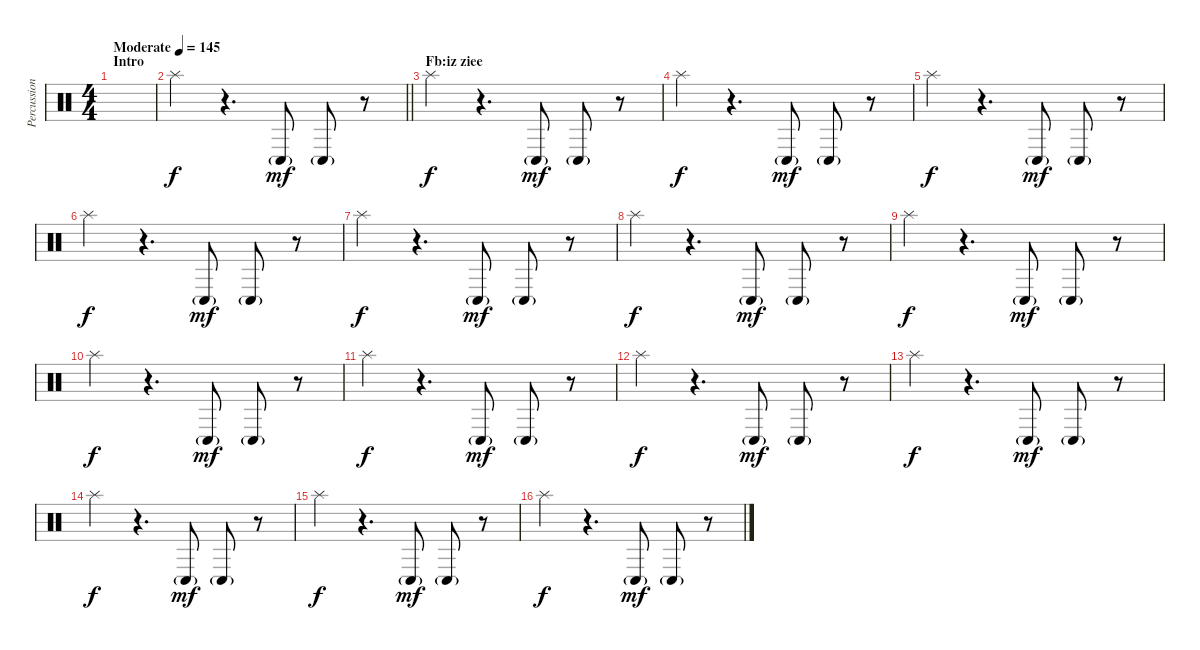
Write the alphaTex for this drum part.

\track ("Percussion 2" "Percussion") {instrument percussion}
\staff {score}
\articulation defaults
\ts (4 4)
\section ("" "Intro")
\tempo (145 "Moderate")
\clef neutral
\ks c
|
\barLineRight lightlight "Splash (hit)".4
r.4{d} "Conga low (hit)"{g}.8{dy mf} "Conga low (hit)"{g}.8 r.8 |
\section ("" "Fb:iz ziee")
"Splash (hit)".4{dy f} r.4{d} "Conga low (hit)"{g}.8{dy mf} "Conga low (hit)"{g}.8 r.8 |
"Splash (hit)".4{dy f} r.4{d} "Conga low (hit)"{g}.8{dy mf} "Conga low (hit)"{g}.8 r.8 |
"Splash (hit)".4{dy f} r.4{d} "Conga low (hit)"{g}.8{dy mf} "Conga low (hit)"{g}.8 r.8 |
"Splash (hit)".4{dy f} r.4{d} "Conga low (hit)"{g}.8{dy mf} "Conga low (hit)"{g}.8 r.8 |
"Splash (hit)".4{dy f} r.4{d} "Conga low (hit)"{g}.8{dy mf} "Conga low (hit)"{g}.8 r.8 |
"Splash (hit)".4{dy f} r.4{d} "Conga low (hit)"{g}.8{dy mf} "Conga low (hit)"{g}.8 r.8 |
"Splash (hit)".4{dy f} r.4{d} "Conga low (hit)"{g}.8{dy mf} "Conga low (hit)"{g}.8 r.8 |
"Splash (hit)".4{dy f} r.4{d} "Conga low (hit)"{g}.8{dy mf} "Conga low (hit)"{g}.8 r.8 |
"Splash (hit)".4{dy f} r.4{d} "Conga low (hit)"{g}.8{dy mf} "Conga low (hit)"{g}.8 r.8 |
"Splash (hit)".4{dy f} r.4{d} "Conga low (hit)"{g}.8{dy mf} "Conga low (hit)"{g}.8 r.8 |
"Splash (hit)".4{dy f} r.4{d} "Conga low (hit)"{g}.8{dy mf} "Conga low (hit)"{g}.8 r.8 |
"Splash (hit)".4{dy f} r.4{d} "Conga low (hit)"{g}.8{dy mf} "Conga low (hit)"{g}.8 r.8 |
"Splash (hit)".4{dy f} r.4{d} "Conga low (hit)"{g}.8{dy mf} "Conga low (hit)"{g}.8 r.8 |
"Splash (hit)".4{dy f} r.4{d} "Conga low (hit)"{g}.8{dy mf} "Conga low (hit)"{g}.8 r.8
